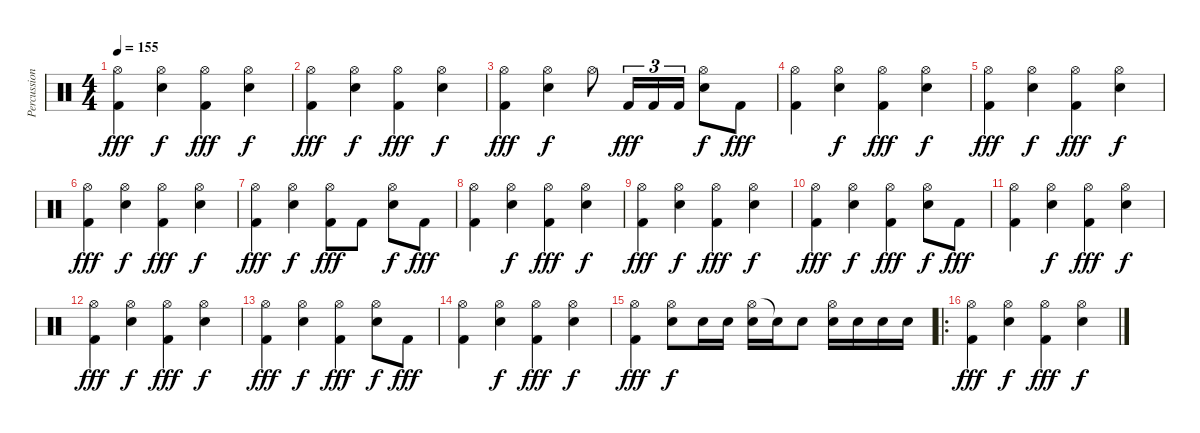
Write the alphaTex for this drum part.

\track ("Percussion" "Percussion") {instrument percussion}
\staff {score}
\articulation defaults
\ts (4 4)
\tempo 155
\clef neutral
\ks c
("Hi-Hat (open)" "Kick (hit) 2").4{dy fff} ("Hi-Hat (open)" "Snare (hit) 2").4{dy f} ("Hi-Hat (open)" "Kick (hit) 2").4{dy fff} ("Hi-Hat (open)" "Snare (hit) 2").4{dy f} |
("Hi-Hat (open)" "Kick (hit) 2").4{dy fff} ("Hi-Hat (open)" "Snare (hit) 2").4{dy f} ("Hi-Hat (open)" "Kick (hit) 2").4{dy fff} ("Hi-Hat (open)" "Snare (hit) 2").4{dy f} |
("Hi-Hat (open)" "Kick (hit) 2").4{dy fff} ("Hi-Hat (open)" "Snare (hit) 2").4{dy f} "Hi-Hat (open)".8 "Kick (hit) 2".16{tu (3 2) dy fff} "Kick (hit) 2".16{tu (3 2)} "Kick (hit) 2".16{tu (3 2)} ("Hi-Hat (open)" "Snare (hit) 2").8{dy f} "Kick (hit) 2".8{dy fff} |
("Hi-Hat (open)" "Kick (hit) 2").4 ("Hi-Hat (open)" "Snare (hit) 2").4{dy f} ("Hi-Hat (open)" "Kick (hit) 2").4{dy fff} ("Hi-Hat (open)" "Snare (hit) 2").4{dy f} |
("Hi-Hat (open)" "Kick (hit) 2").4{dy fff} ("Hi-Hat (open)" "Snare (hit) 2").4{dy f} ("Hi-Hat (open)" "Kick (hit) 2").4{dy fff} ("Hi-Hat (open)" "Snare (hit) 2").4{dy f} |
("Hi-Hat (open)" "Kick (hit) 2").4{dy fff} ("Hi-Hat (open)" "Snare (hit) 2").4{dy f} ("Hi-Hat (open)" "Kick (hit) 2").4{dy fff} ("Hi-Hat (open)" "Snare (hit) 2").4{dy f} |
("Hi-Hat (open)" "Kick (hit) 2").4{dy fff} ("Hi-Hat (open)" "Snare (hit) 2").4{dy f} ("Hi-Hat (open)" "Kick (hit) 2").8{dy fff} "Kick (hit) 2".8 ("Hi-Hat (open)" "Snare (hit) 2").8{dy f} "Kick (hit) 2".8{dy fff} |
("Hi-Hat (open)" "Kick (hit) 2").4 ("Hi-Hat (open)" "Snare (hit) 2").4{dy f} ("Hi-Hat (open)" "Kick (hit) 2").4{dy fff} ("Hi-Hat (open)" "Snare (hit) 2").4{dy f} |
("Hi-Hat (open)" "Kick (hit) 2").4{dy fff} ("Hi-Hat (open)" "Snare (hit) 2").4{dy f} ("Hi-Hat (open)" "Kick (hit) 2").4{dy fff} ("Hi-Hat (open)" "Snare (hit) 2").4{dy f} |
("Hi-Hat (open)" "Kick (hit) 2").4{dy fff} ("Hi-Hat (open)" "Snare (hit) 2").4{dy f} ("Hi-Hat (open)" "Kick (hit) 2").4{dy fff} ("Hi-Hat (open)" "Snare (hit) 2").8{dy f} "Kick (hit) 2".8{dy fff} |
("Hi-Hat (open)" "Kick (hit) 2").4 ("Hi-Hat (open)" "Snare (hit) 2").4{dy f} ("Hi-Hat (open)" "Kick (hit) 2").4{dy fff} ("Hi-Hat (open)" "Snare (hit) 2").4{dy f} |
("Hi-Hat (open)" "Kick (hit) 2").4{dy fff} ("Hi-Hat (open)" "Snare (hit) 2").4{dy f} ("Hi-Hat (open)" "Kick (hit) 2").4{dy fff} ("Hi-Hat (open)" "Snare (hit) 2").4{dy f} |
("Hi-Hat (open)" "Kick (hit) 2").4{dy fff} ("Hi-Hat (open)" "Snare (hit) 2").4{dy f} ("Hi-Hat (open)" "Kick (hit) 2").4{dy fff} ("Hi-Hat (open)" "Snare (hit) 2").8{dy f} "Kick (hit) 2".8{dy fff} |
("Hi-Hat (open)" "Kick (hit) 2").4 ("Hi-Hat (open)" "Snare (hit) 2").4{dy f} ("Hi-Hat (open)" "Kick (hit) 2").4{dy fff} ("Hi-Hat (open)" "Snare (hit) 2").4{dy f} |
("Hi-Hat (open)" "Kick (hit) 2").4{dy fff} ("Hi-Hat (open)" "Snare (hit) 2").8{dy f} "Snare (hit) 2".16 "Snare (hit) 2".16 ("Hi-Hat (open)" "Snare (hit) 2").16 "Snare (hit) 2"{t}.16 "Snare (hit) 2".8 ("Hi-Hat (open)" "Snare (hit) 2").16 "Snare (hit) 2".16 "Snare (hit) 2".16 "Snare (hit) 2".16 |
\ro
("Hi-Hat (open)" "Kick (hit) 2").4{dy fff} ("Hi-Hat (open)" "Snare (hit) 2").4{dy f} ("Hi-Hat (open)" "Kick (hit) 2").4{dy fff} ("Hi-Hat (open)" "Snare (hit) 2").4{dy f}
